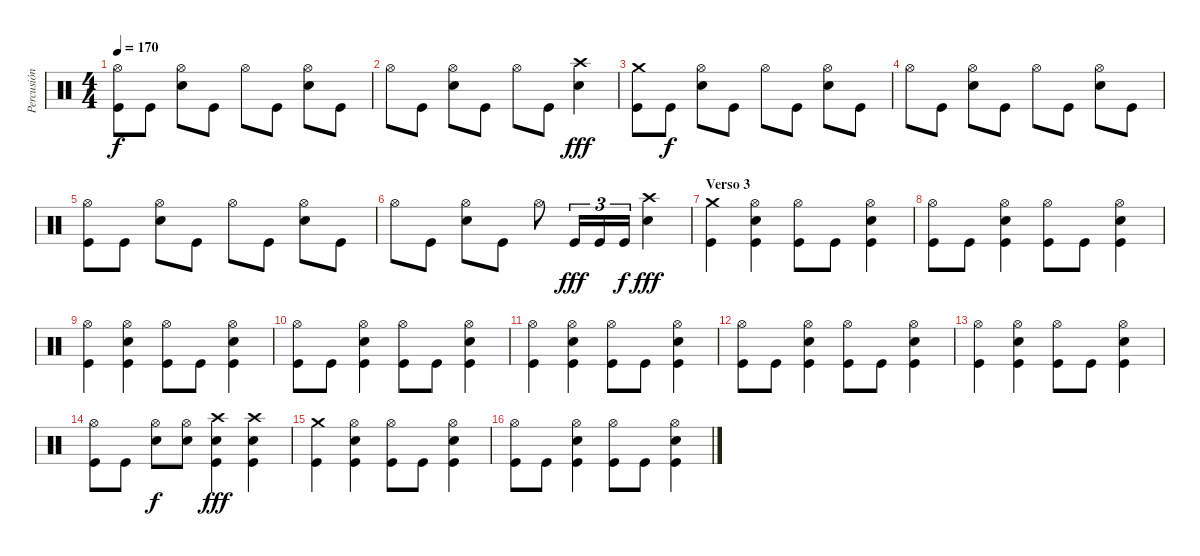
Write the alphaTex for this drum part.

\track ("Percusión" "Percusión") {instrument percussion}
\staff {score}
\articulation defaults
\ts (4 4)
\tempo 170
\clef neutral
\ks c
("Hi-Hat (open)" "Kick (hit)").8{dy f} "Kick (hit)".8 ("Hi-Hat (open)" "Electric Snare (hit)").8 "Kick (hit)".8 "Hi-Hat (open)".8 "Kick (hit)".8 ("Hi-Hat (open)" "Electric Snare (hit)").8 "Kick (hit)".8 |
"Hi-Hat (open)".8 "Kick (hit)".8 ("Hi-Hat (open)" "Electric Snare (hit)").8 "Kick (hit)".8 "Hi-Hat (open)".8 "Kick (hit)".8 ("Crash high (hit)" "Electric Snare (hit)").4{dy fff} |
("Crash medium (hit)" "Kick (hit)").8 "Kick (hit)".8{dy f} ("Hi-Hat (open)" "Electric Snare (hit)").8 "Kick (hit)".8 "Hi-Hat (open)".8 "Kick (hit)".8 ("Hi-Hat (open)" "Electric Snare (hit)").8 "Kick (hit)".8 |
"Hi-Hat (open)".8 "Kick (hit)".8 ("Hi-Hat (open)" "Electric Snare (hit)").8 "Kick (hit)".8 "Hi-Hat (open)".8 "Kick (hit)".8 ("Hi-Hat (open)" "Electric Snare (hit)").8 "Kick (hit)".8 |
("Hi-Hat (open)" "Kick (hit)").8 "Kick (hit)".8 ("Hi-Hat (open)" "Electric Snare (hit)").8 "Kick (hit)".8 "Hi-Hat (open)".8 "Kick (hit)".8 ("Hi-Hat (open)" "Electric Snare (hit)").8 "Kick (hit)".8 |
"Hi-Hat (open)".8 "Kick (hit)".8 ("Hi-Hat (open)" "Electric Snare (hit)").8 "Kick (hit)".8 "Hi-Hat (open)".8 "Kick (hit)".16{tu (3 2) dy fff} "Kick (hit)".16{tu (3 2)} "Kick (hit)".16{tu (3 2) dy f} ("Crash high (hit)" "Electric Snare (hit)").4{dy fff} |
\section ("" "Verso 3")
("Crash medium (hit)" "Kick (hit)").4 ("Hi-Hat (open)" "Electric Snare (hit)" "Kick (hit)").4 ("Hi-Hat (open)" "Kick (hit)").8 "Kick (hit)".8 ("Hi-Hat (open)" "Electric Snare (hit)" "Kick (hit)").4 |
("Hi-Hat (open)" "Kick (hit)").8 "Kick (hit)".8 ("Hi-Hat (open)" "Electric Snare (hit)" "Kick (hit)").4 ("Hi-Hat (open)" "Kick (hit)").8 "Kick (hit)".8 ("Hi-Hat (open)" "Electric Snare (hit)" "Kick (hit)").4 |
("Hi-Hat (open)" "Kick (hit)").4 ("Hi-Hat (open)" "Electric Snare (hit)" "Kick (hit)").4 ("Hi-Hat (open)" "Kick (hit)").8 "Kick (hit)".8 ("Hi-Hat (open)" "Electric Snare (hit)" "Kick (hit)").4 |
("Hi-Hat (open)" "Kick (hit)").8 "Kick (hit)".8 ("Hi-Hat (open)" "Electric Snare (hit)" "Kick (hit)").4 ("Hi-Hat (open)" "Kick (hit)").8 "Kick (hit)".8 ("Hi-Hat (open)" "Electric Snare (hit)" "Kick (hit)").4 |
("Hi-Hat (open)" "Kick (hit)").4 ("Hi-Hat (open)" "Electric Snare (hit)" "Kick (hit)").4 ("Hi-Hat (open)" "Kick (hit)").8 "Kick (hit)".8 ("Hi-Hat (open)" "Electric Snare (hit)" "Kick (hit)").4 |
("Hi-Hat (open)" "Kick (hit)").8 "Kick (hit)".8 ("Hi-Hat (open)" "Electric Snare (hit)" "Kick (hit)").4 ("Hi-Hat (open)" "Kick (hit)").8 "Kick (hit)".8 ("Hi-Hat (open)" "Electric Snare (hit)" "Kick (hit)").4 |
("Hi-Hat (open)" "Kick (hit)").4 ("Hi-Hat (open)" "Electric Snare (hit)" "Kick (hit)").4 ("Hi-Hat (open)" "Kick (hit)").8 "Kick (hit)".8 ("Hi-Hat (open)" "Electric Snare (hit)" "Kick (hit)").4 |
("Hi-Hat (open)" "Kick (hit)").8 "Kick (hit)".8 ("Hi-Hat (open)" "Electric Snare (hit)").8{dy f} ("Hi-Hat (open)" "Electric Snare (hit)").8 ("Crash high (hit)" "Electric Snare (hit)" "Kick (hit)").4{dy fff} ("Crash high (hit)" "Electric Snare (hit)" "Kick (hit)").4 |
("Crash medium (hit)" "Kick (hit)").4 ("Hi-Hat (open)" "Electric Snare (hit)" "Kick (hit)").4 ("Hi-Hat (open)" "Kick (hit)").8 "Kick (hit)".8 ("Hi-Hat (open)" "Electric Snare (hit)" "Kick (hit)").4 |
("Hi-Hat (open)" "Kick (hit)").8 "Kick (hit)".8 ("Hi-Hat (open)" "Electric Snare (hit)" "Kick (hit)").4 ("Hi-Hat (open)" "Kick (hit)").8 "Kick (hit)".8 ("Hi-Hat (open)" "Electric Snare (hit)" "Kick (hit)").4
